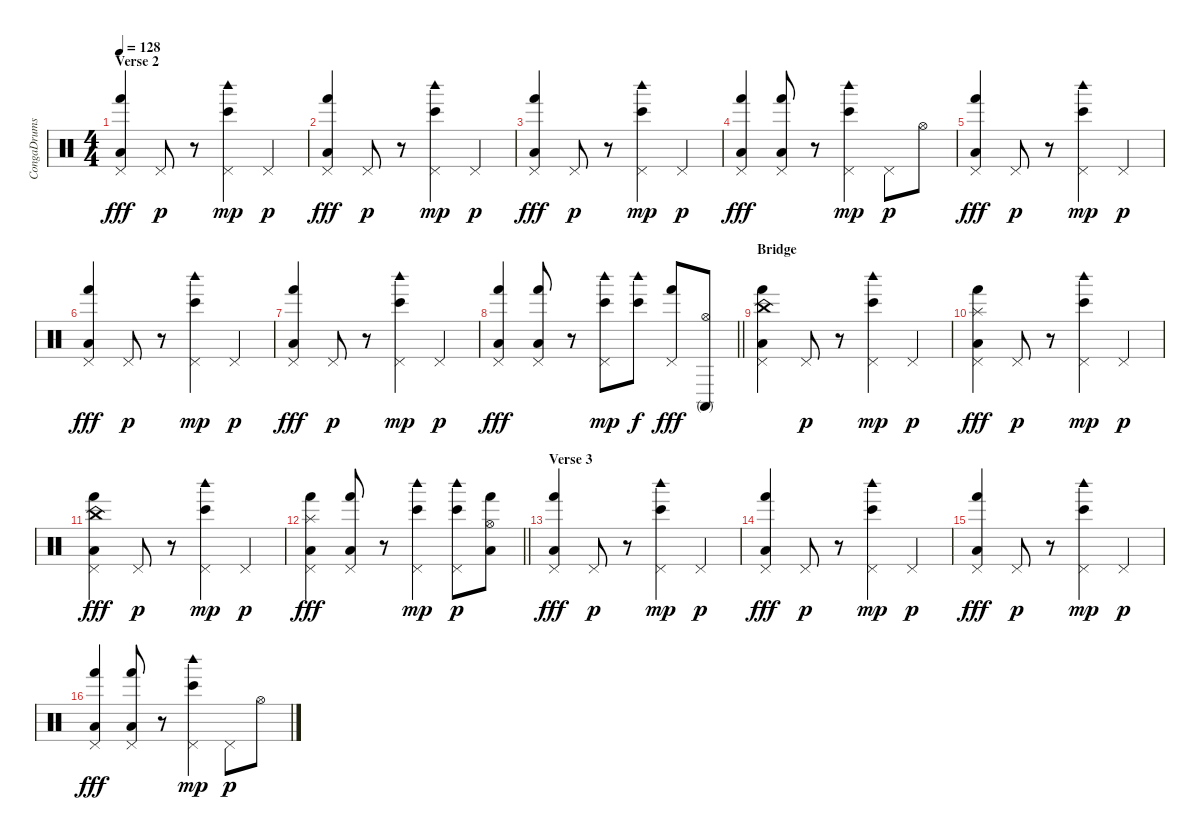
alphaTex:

\track ("CongaDrums" "CongaDrums") {instrument percussion}
\staff {score}
\articulation defaults
\ts (4 4)
\section ("" "Verse 2 ")
\tempo 128
\clef neutral
\ks c
("Pedal Hi-Hat (hit)" "Hand (hit)" "Low Floor Tom (hit)").4{dy fff} "Pedal Hi-Hat (hit)".8{dy p} r.8 ("Bongo High (hit)" "Woodblock high (hit)" "Pedal Hi-Hat (hit)").4{dy mp} "Pedal Hi-Hat (hit)".4{dy p} |
("Pedal Hi-Hat (hit)" "Hand (hit)" "Low Floor Tom (hit)").4{dy fff} "Pedal Hi-Hat (hit)".8{dy p} r.8 ("Bongo High (hit)" "Woodblock high (hit)" "Pedal Hi-Hat (hit)").4{dy mp} "Pedal Hi-Hat (hit)".4{dy p} |
("Pedal Hi-Hat (hit)" "Hand (hit)" "Low Floor Tom (hit)").4{dy fff} "Pedal Hi-Hat (hit)".8{dy p} r.8 ("Bongo High (hit)" "Woodblock high (hit)" "Pedal Hi-Hat (hit)").4{dy mp} "Pedal Hi-Hat (hit)".4{dy p} |
("Pedal Hi-Hat (hit)" "Hand (hit)" "Low Floor Tom (hit)").4{dy fff} ("Pedal Hi-Hat (hit)" "Hand (hit)" "Low Floor Tom (hit)").8 r.8 ("Bongo High (hit)" "Woodblock high (hit)" "Pedal Hi-Hat (hit)").4{dy mp} "Pedal Hi-Hat (hit)".8{dy p} "Hi-Hat (open)".8 |
("Pedal Hi-Hat (hit)" "Hand (hit)" "Low Floor Tom (hit)").4{dy fff} "Pedal Hi-Hat (hit)".8{dy p} r.8 ("Bongo High (hit)" "Woodblock high (hit)" "Pedal Hi-Hat (hit)").4{dy mp} "Pedal Hi-Hat (hit)".4{dy p} |
("Pedal Hi-Hat (hit)" "Hand (hit)" "Low Floor Tom (hit)").4{dy fff} "Pedal Hi-Hat (hit)".8{dy p} r.8 ("Bongo High (hit)" "Woodblock high (hit)" "Pedal Hi-Hat (hit)").4{dy mp} "Pedal Hi-Hat (hit)".4{dy p} |
("Pedal Hi-Hat (hit)" "Hand (hit)" "Low Floor Tom (hit)").4{dy fff} "Pedal Hi-Hat (hit)".8{dy p} r.8 ("Bongo High (hit)" "Woodblock high (hit)" "Pedal Hi-Hat (hit)").4{dy mp} "Pedal Hi-Hat (hit)".4{dy p} |
\barLineRight lightlight
("Pedal Hi-Hat (hit)" "Hand (hit)" "Low Floor Tom (hit)").4{dy fff} ("Pedal Hi-Hat (hit)" "Hand (hit)" "Low Floor Tom (hit)").8 r.8 ("Bongo High (hit)" "Woodblock high (hit)" "Pedal Hi-Hat (hit)").8{dy mp} ("Bongo High (hit)" "Woodblock high (hit)").8{dy f} ("Pedal Hi-Hat (hit)" "Hand (hit)").8{dy fff} ("Hi-Hat (open)" "Conga high (mute)").8 |
\section ("" "Bridge ")
("China (hit)" "Pedal Hi-Hat (hit)" "Hand (hit)" "Low Floor Tom (hit)").4 "Pedal Hi-Hat (hit)".8{dy p} r.8 ("Bongo High (hit)" "Woodblock high (hit)" "Pedal Hi-Hat (hit)").4{dy mp} "Pedal Hi-Hat (hit)".4{dy p} |
("Splash (hit)" "Pedal Hi-Hat (hit)" "Hand (hit)" "Low Floor Tom (hit)").4{dy fff} "Pedal Hi-Hat (hit)".8{dy p} r.8 ("Bongo High (hit)" "Woodblock high (hit)" "Pedal Hi-Hat (hit)").4{dy mp} "Pedal Hi-Hat (hit)".4{dy p} |
("China (hit)" "Pedal Hi-Hat (hit)" "Hand (hit)" "Low Floor Tom (hit)").4{dy fff} "Pedal Hi-Hat (hit)".8{dy p} r.8 ("Bongo High (hit)" "Woodblock high (hit)" "Pedal Hi-Hat (hit)").4{dy mp} "Pedal Hi-Hat (hit)".4{dy p} |
\barLineRight lightlight
("Splash (hit)" "Pedal Hi-Hat (hit)" "Hand (hit)" "Low Floor Tom (hit)").4{dy fff} ("Pedal Hi-Hat (hit)" "Hand (hit)" "Low Floor Tom (hit)").8 r.8 ("Bongo High (hit)" "Woodblock high (hit)" "Pedal Hi-Hat (hit)").4{dy mp} ("Bongo High (hit)" "Woodblock high (hit)" "Pedal Hi-Hat (hit)").8{dy p} ("Hi-Hat (open)" "Hand (hit)" "Low Floor Tom (hit)").8 |
\section ("" "Verse 3 ")
("Pedal Hi-Hat (hit)" "Hand (hit)" "Low Floor Tom (hit)").4{dy fff} "Pedal Hi-Hat (hit)".8{dy p} r.8 ("Bongo High (hit)" "Woodblock high (hit)" "Pedal Hi-Hat (hit)").4{dy mp} "Pedal Hi-Hat (hit)".4{dy p} |
("Pedal Hi-Hat (hit)" "Hand (hit)" "Low Floor Tom (hit)").4{dy fff} "Pedal Hi-Hat (hit)".8{dy p} r.8 ("Bongo High (hit)" "Woodblock high (hit)" "Pedal Hi-Hat (hit)").4{dy mp} "Pedal Hi-Hat (hit)".4{dy p} |
("Pedal Hi-Hat (hit)" "Hand (hit)" "Low Floor Tom (hit)").4{dy fff} "Pedal Hi-Hat (hit)".8{dy p} r.8 ("Bongo High (hit)" "Woodblock high (hit)" "Pedal Hi-Hat (hit)").4{dy mp} "Pedal Hi-Hat (hit)".4{dy p} |
("Pedal Hi-Hat (hit)" "Hand (hit)" "Low Floor Tom (hit)").4{dy fff} ("Pedal Hi-Hat (hit)" "Hand (hit)" "Low Floor Tom (hit)").8 r.8 ("Bongo High (hit)" "Woodblock high (hit)" "Pedal Hi-Hat (hit)").4{dy mp} "Pedal Hi-Hat (hit)".8{dy p} "Hi-Hat (open)".8
